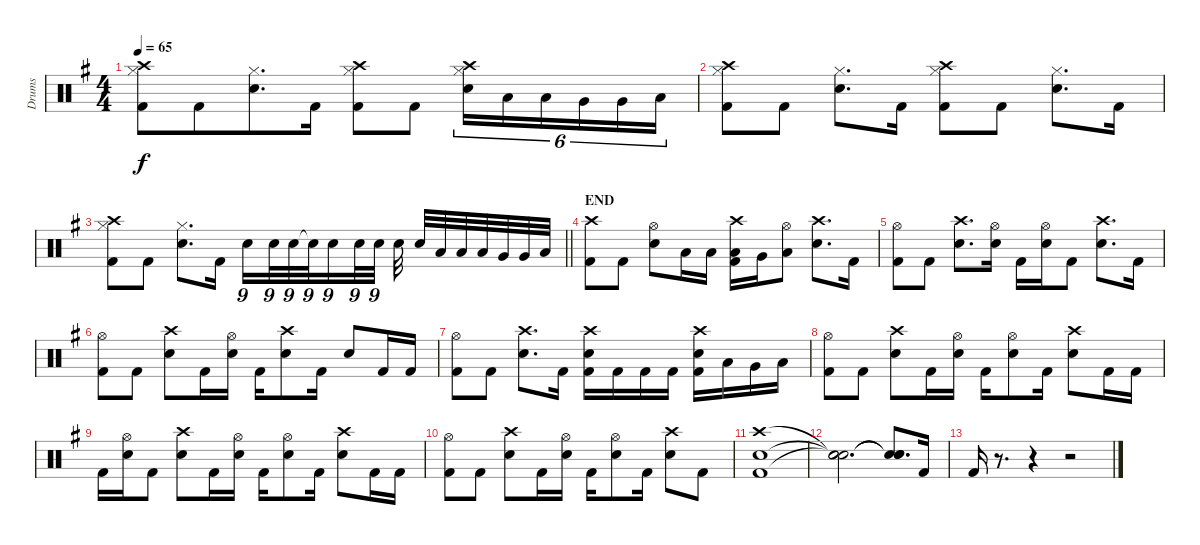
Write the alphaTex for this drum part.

\track ("Drums" "Drums") {instrument percussion}
\staff {score}
\articulation defaults
\ts (4 4)
\tempo 65
\clef neutral
\ks eminor
("Crash high (hit)" "Hi-Hat (closed)" "Kick (hit) 2").8{dy f} "Kick (hit) 2".8{beam merge} ("Hi-Hat (closed)" "Electric Snare (hit)").8{d} "Kick (hit) 2".16 ("Crash high (hit)" "Hi-Hat (closed)" "Kick (hit) 2").8 "Kick (hit) 2".8 ("Crash high (hit)" "Hi-Hat (closed)" "Electric Snare (hit)").16{tu (6 4)} "Low Tom (hit)".16{tu (6 4)} "Low Tom (hit)".16{tu (6 4)} "Very Low Tom (hit)".16{tu (6 4)} "Very Low Tom (hit)".16{tu (6 4)} "Low Floor Tom (hit)".16{tu (6 4)} |
("Crash high (hit)" "Hi-Hat (closed)" "Kick (hit) 2").8 "Kick (hit) 2".8 ("Hi-Hat (closed)" "Electric Snare (hit)").8{d} "Kick (hit) 2".16 ("Crash high (hit)" "Hi-Hat (closed)" "Kick (hit) 2").8 "Kick (hit) 2".8 ("Hi-Hat (closed)" "Electric Snare (hit)").8{d} "Kick (hit) 2".16 |
\barLineRight lightlight
("Crash high (hit)" "Hi-Hat (closed)" "Kick (hit) 2").8 "Kick (hit) 2".8 ("Hi-Hat (closed)" "Electric Snare (hit)").8{d} "Kick (hit) 2".16 "Electric Snare (hit)".16{tu (9 8)} "Electric Snare (hit)".32{tu (9 8)} "Electric Snare (hit)".32{tu (9 8)} "Electric Snare (hit)"{t}.32{tu (9 8)} "Electric Snare (hit)".16{tu (9 8)} "Electric Snare (hit)".32{tu (9 8)} "Electric Snare (hit)".32{tu (9 8)} "Electric Snare (hit)".32 "Electric Snare (hit)".32 "Low Tom (hit)".32 "Low Tom (hit)".32 "Low Tom (hit)".32 "Very Low Tom (hit)".32 "Very Low Tom (hit)".32 "Low Floor Tom (hit)".32 |
\section ("" "END")
("Crash high (hit)" "Kick (hit) 2").8 "Kick (hit) 2".8 ("Hi-Hat (open)" "Electric Snare (hit)").8 "Low Tom (hit)".16 "Low Tom (hit)".16 ("Crash high (hit)" "Low Tom (hit)" "Kick (hit) 2").16 "Very Low Tom (hit)".16 ("Hi-Hat (open)" "Low Floor Tom (hit)").8 ("Crash high (hit)" "Electric Snare (hit)").8{d} "Kick (hit) 2".16 |
("Hi-Hat (open)" "Kick (hit) 2").8 "Kick (hit) 2".8 ("Crash high (hit)" "Electric Snare (hit)").8{d} ("Hi-Hat (open)" "Electric Snare (hit)").16 "Kick (hit) 2".16 ("Hi-Hat (open)" "Electric Snare (hit)").16 "Kick (hit) 2".8 ("Crash high (hit)" "Electric Snare (hit)").8{d} "Kick (hit) 2".16 |
("Hi-Hat (open)" "Kick (hit) 2").8 "Kick (hit) 2".8 ("Crash high (hit)" "Electric Snare (hit)").8 "Kick (hit) 2".16 ("Hi-Hat (open)" "Electric Snare (hit)").16 "Kick (hit) 2".16 ("Crash high (hit)" "Electric Snare (hit)").8 "Kick (hit) 2".16 "Electric Snare (hit)".8 "Kick (hit) 2".16 "Kick (hit) 2".16 |
("Hi-Hat (open)" "Kick (hit) 2").8 "Kick (hit) 2".8 ("Crash high (hit)" "Electric Snare (hit)").8{d} "Kick (hit) 2".16 ("Crash high (hit)" "Electric Snare (hit)" "Kick (hit) 2").16 "Kick (hit) 2".16 "Kick (hit) 2".16 "Kick (hit) 2".16 ("Crash high (hit)" "Electric Snare (hit)" "Kick (hit) 2").16 "Low Tom (hit)".16 "Very Low Tom (hit)".16 "Low Floor Tom (hit)".16 |
("Hi-Hat (open)" "Kick (hit) 2").8 "Kick (hit) 2".8 ("Crash high (hit)" "Electric Snare (hit)").8 "Kick (hit) 2".16 ("Hi-Hat (open)" "Electric Snare (hit)").16 "Kick (hit) 2".16 ("Hi-Hat (open)" "Electric Snare (hit)").8 "Kick (hit) 2".16 ("Crash high (hit)" "Electric Snare (hit)").8 "Kick (hit) 2".16 "Kick (hit) 2".16 |
"Kick (hit) 2".16 ("Hi-Hat (open)" "Electric Snare (hit)").16 "Kick (hit) 2".8 ("Crash high (hit)" "Electric Snare (hit)").8 "Kick (hit) 2".16 ("Hi-Hat (open)" "Electric Snare (hit)").16 "Kick (hit) 2".16 ("Hi-Hat (open)" "Electric Snare (hit)").8 "Kick (hit) 2".16 ("Crash high (hit)" "Electric Snare (hit)").8 "Kick (hit) 2".16 "Kick (hit) 2".16 |
("Hi-Hat (open)" "Kick (hit) 2").8 "Kick (hit) 2".8 ("Crash high (hit)" "Electric Snare (hit)").8 "Kick (hit) 2".16 ("Hi-Hat (open)" "Electric Snare (hit)").16 "Kick (hit) 2".16 ("Hi-Hat (open)" "Electric Snare (hit)").8 "Kick (hit) 2".16 ("Crash high (hit)" "Electric Snare (hit)").8 "Kick (hit) 2".8 |
("Crash high (hit)" "Electric Snare (hit)" "Kick (hit) 2").1 |
("Snare (hit)"{t} "Snare (hit)"{t} "Snare (hit)"{t}).2{d} ("Snare (hit)"{t} "Snare (hit)"{t} "Snare (hit)"{t}).8{d} "Kick (hit) 2".16 |
"Kick (hit) 2".16 r.8{d} r.4 r.2
